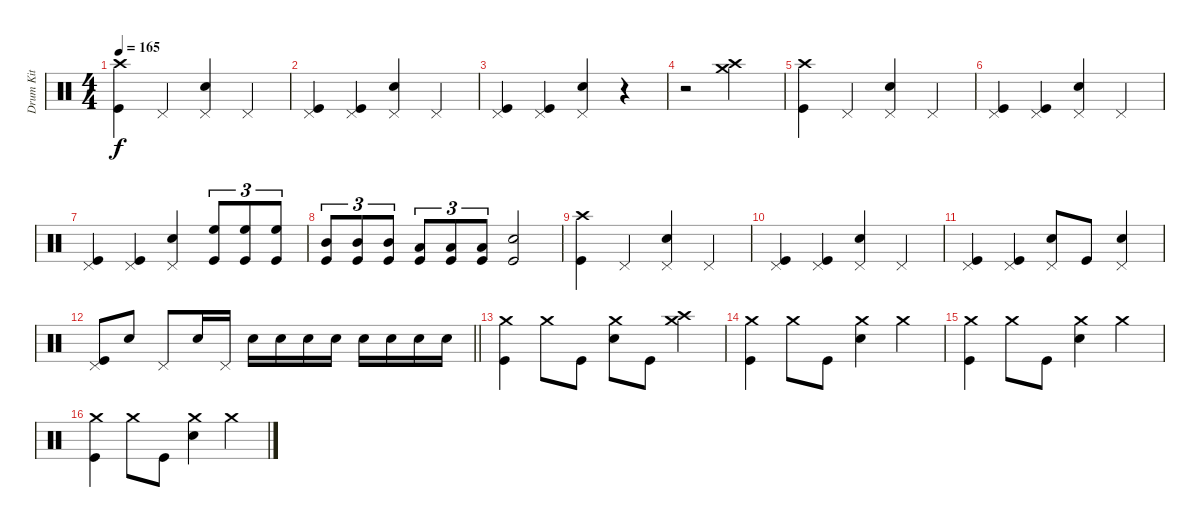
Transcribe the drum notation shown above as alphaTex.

\track ("Drum Kit" "Drum Kit") {instrument percussion}
\staff {score}
\articulation defaults
\ts (4 4)
\tempo 165
\clef neutral
\ks c
("Crash high (hit)" "Kick (hit)").4{dy f} "Pedal Hi-Hat (hit)".4 ("Pedal Hi-Hat (hit)" "Snare (hit) 2").4 "Pedal Hi-Hat (hit)".4 |
("Pedal Hi-Hat (hit)" "Kick (hit)").4 ("Pedal Hi-Hat (hit)" "Kick (hit)").4 ("Pedal Hi-Hat (hit)" "Snare (hit) 2").4 "Pedal Hi-Hat (hit)".4 |
("Pedal Hi-Hat (hit)" "Kick (hit)").4 ("Pedal Hi-Hat (hit)" "Kick (hit)").4 ("Pedal Hi-Hat (hit)" "Snare (hit) 2").4 r.4 |
r.2 ("Crash high (hit)" "Crash medium (hit)").2 |
("Crash high (hit)" "Kick (hit)").4 "Pedal Hi-Hat (hit)".4 ("Pedal Hi-Hat (hit)" "Snare (hit) 2").4 "Pedal Hi-Hat (hit)".4 |
("Pedal Hi-Hat (hit)" "Kick (hit)").4 ("Pedal Hi-Hat (hit)" "Kick (hit)").4 ("Pedal Hi-Hat (hit)" "Snare (hit) 2").4 "Pedal Hi-Hat (hit)".4 |
("Pedal Hi-Hat (hit)" "Kick (hit)").4 ("Pedal Hi-Hat (hit)" "Kick (hit)").4 ("Pedal Hi-Hat (hit)" "Snare (hit) 2").4 ("High Floor Tom (hit)" "Kick (hit)").8{tu (3 2)} ("High Floor Tom (hit)" "Kick (hit)").8{tu (3 2)} ("High Floor Tom (hit)" "Kick (hit)").8{tu (3 2)} |
("Mid Tom (hit)" "Kick (hit)").8{tu (3 2)} ("Mid Tom (hit)" "Kick (hit)").8{tu (3 2)} ("Mid Tom (hit)" "Kick (hit)").8{tu (3 2)} ("Low Tom (hit)" "Kick (hit)").8{tu (3 2)} ("Low Tom (hit)" "Kick (hit)").8{tu (3 2)} ("Low Tom (hit)" "Kick (hit)").8{tu (3 2)} ("Snare (hit) 2" "Kick (hit)").2 |
("Crash high (hit)" "Kick (hit)").4 "Pedal Hi-Hat (hit)".4 ("Pedal Hi-Hat (hit)" "Snare (hit) 2").4 "Pedal Hi-Hat (hit)".4 |
("Pedal Hi-Hat (hit)" "Kick (hit)").4 ("Pedal Hi-Hat (hit)" "Kick (hit)").4 ("Pedal Hi-Hat (hit)" "Snare (hit) 2").4 "Pedal Hi-Hat (hit)".4 |
("Pedal Hi-Hat (hit)" "Kick (hit)").4 ("Pedal Hi-Hat (hit)" "Kick (hit)").4 ("Pedal Hi-Hat (hit)" "Snare (hit) 2").8 "Kick (hit)".8 ("Pedal Hi-Hat (hit)" "Snare (hit) 2").4 |
\barLineRight lightlight
("Pedal Hi-Hat (hit)" "Kick (hit)").8 "Snare (hit) 2".8 "Pedal Hi-Hat (hit)".8 "Snare (hit) 2".16 "Pedal Hi-Hat (hit)".16 "Snare (hit) 2".16 "Snare (hit) 2".16 "Snare (hit) 2".16 "Snare (hit) 2".16 "Snare (hit) 2".16 "Snare (hit) 2".16 "Snare (hit) 2".16 "Snare (hit) 2".16 |
("Crash medium (hit)" "Kick (hit)").4 "Crash medium (hit)".8 "Kick (hit)".8 ("Snare (hit) 2" "Crash medium (hit)").8 "Kick (hit)".8 ("Crash medium (hit)" "Crash high (hit)").4 |
("Crash medium (hit)" "Kick (hit)").4 "Crash medium (hit)".8 "Kick (hit)".8 ("Snare (hit) 2" "Crash medium (hit)").4 "Crash medium (hit)".4 |
("Crash medium (hit)" "Kick (hit)").4 "Crash medium (hit)".8 "Kick (hit)".8 ("Snare (hit) 2" "Crash medium (hit)").4 "Crash medium (hit)".4 |
("Crash medium (hit)" "Kick (hit)").4 "Crash medium (hit)".8 "Kick (hit)".8 ("Snare (hit) 2" "Crash medium (hit)").4 "Crash medium (hit)".4
